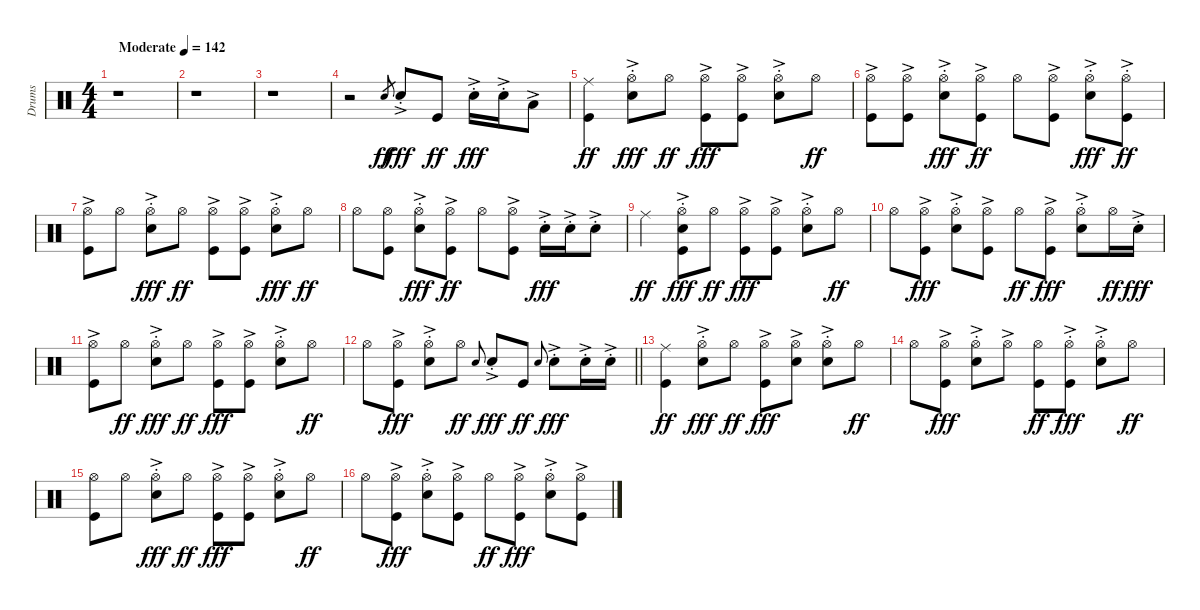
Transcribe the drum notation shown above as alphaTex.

\track ("Drums" "Drums") {instrument percussion}
\staff {score}
\articulation defaults
\ts (4 4)
\tempo (142 "Moderate")
\clef neutral
\ks c
r.1{dy ff} |
r.1 |
r.1 |
r.2 "Snare (hit) 2"{h}.8{gr} "Snare (hit) 2"{ac st}.8{dy fff} "Kick (hit)".8{dy ff} "Snare (hit) 2"{ac st}.16{dy fff} "Snare (hit) 2"{ac st}.16 "Low Floor Tom (hit)"{ac}.8 |
("Ride (middle)" "Kick (hit)").4{dy ff} ("Hi-Hat (open)"{ac st} "Snare (hit) 2"{ac st}).8{dy fff} "Hi-Hat (open)".8{dy ff} ("Hi-Hat (open)"{ac} "Kick (hit)"{ac}).8{dy fff} ("Hi-Hat (open)"{ac} "Kick (hit)"{ac}).8 ("Hi-Hat (open)"{ac st} "Snare (hit) 2"{ac st}).8 "Hi-Hat (open)".8{dy ff} |
("Hi-Hat (open)"{ac} "Kick (hit)").8 ("Hi-Hat (open)"{ac} "Kick (hit)").8 ("Hi-Hat (open)"{ac st} "Snare (hit) 2"{ac st}).8{dy fff} ("Hi-Hat (open)"{ac} "Kick (hit)").8{dy ff} "Hi-Hat (open)".8 ("Hi-Hat (open)"{ac} "Kick (hit)").8 ("Hi-Hat (open)"{ac st} "Snare (hit) 2"{ac st}).8{dy fff} ("Hi-Hat (open)"{ac st} "Kick (hit)").8{dy ff} |
("Hi-Hat (open)"{ac} "Kick (hit)").8 "Hi-Hat (open)".8 ("Hi-Hat (open)"{ac st} "Snare (hit) 2"{ac st}).8{dy fff} "Hi-Hat (open)".8{dy ff} ("Hi-Hat (open)"{ac} "Kick (hit)").8 ("Hi-Hat (open)"{ac} "Kick (hit)").8 ("Hi-Hat (open)"{ac st} "Snare (hit) 2"{ac st}).8{dy fff} "Hi-Hat (open)".8{dy ff} |
"Hi-Hat (open)".8 ("Hi-Hat (open)" "Kick (hit)").8 ("Hi-Hat (open)"{ac st} "Snare (hit) 2"{ac st}).8{dy fff} ("Hi-Hat (open)"{ac} "Kick (hit)").8{dy ff} "Hi-Hat (open)".8 ("Hi-Hat (open)"{ac} "Kick (hit)").8 "Snare (hit) 2"{ac st}.16{dy fff} "Snare (hit) 2"{ac st}.16 "Snare (hit) 2"{ac st}.8 |
"Ride (middle)".4{dy ff} ("Hi-Hat (open)"{ac st} "Snare (hit) 2"{ac st} "Kick (hit)"{ac st}).8{dy fff} "Hi-Hat (open)".8{dy ff} ("Hi-Hat (open)"{ac} "Kick (hit)"{ac}).8{dy fff} ("Hi-Hat (open)"{ac} "Kick (hit)"{ac}).8 ("Hi-Hat (open)"{ac st} "Snare (hit) 2"{ac st}).8 "Hi-Hat (open)".8{dy ff} |
"Hi-Hat (open)".8 ("Hi-Hat (open)"{ac} "Kick (hit)"{ac}).8{dy fff} ("Hi-Hat (open)"{ac st} "Snare (hit) 2"{ac st}).8 ("Hi-Hat (open)"{ac} "Kick (hit)"{ac}).8 "Hi-Hat (open)".8{dy ff} ("Hi-Hat (open)"{ac} "Kick (hit)"{ac}).8{dy fff} ("Hi-Hat (open)"{ac st} "Snare (hit) 2"{ac st}).8 "Hi-Hat (open)".16{dy ff} "Snare (hit) 2"{ac st}.16{dy fff} |
("Hi-Hat (open)"{ac} "Kick (hit)"{ac}).8 "Hi-Hat (open)".8{dy ff} ("Hi-Hat (open)"{ac st} "Snare (hit) 2"{ac st}).8{dy fff} "Hi-Hat (open)".8{dy ff} ("Hi-Hat (open)"{ac} "Kick (hit)"{ac}).8{dy fff} ("Hi-Hat (open)"{ac} "Kick (hit)"{ac}).8 ("Hi-Hat (open)"{ac st} "Snare (hit) 2"{ac st}).8 "Hi-Hat (open)".8{dy ff} |
\barLineRight lightlight "Hi-Hat (open)".8
("Hi-Hat (open)"{ac} "Kick (hit)"{ac}).8{dy fff} ("Hi-Hat (open)"{ac st} "Snare (hit) 2"{ac st}).8 "Hi-Hat (open)".8{dy ff} "Snare (hit) 2"{h}.8{gr onbeat} "Snare (hit) 2"{ac st}.8{dy fff} "Kick (hit)".8{dy ff} "Snare (hit) 2"{h}.8{gr onbeat} "Snare (hit) 2"{ac st}.8{dy fff} "Snare (hit) 2"{ac st}.16 "Snare (hit) 2"{ac st}.16 |
("Ride (middle)" "Kick (hit)").4{dy ff} ("Hi-Hat (open)"{ac st} "Snare (hit) 2"{ac st}).8{dy fff} "Hi-Hat (open)".8{dy ff} ("Hi-Hat (open)"{ac} "Kick (hit)"{ac}).8{dy fff} ("Hi-Hat (open)"{ac} "Snare (hit) 2"{ac}).8 ("Hi-Hat (open)"{ac st} "Snare (hit) 2"{ac st}).8 "Hi-Hat (open)".8{dy ff} |
"Hi-Hat (open)".8 ("Hi-Hat (open)"{ac} "Kick (hit)"{ac}).8{dy fff} ("Hi-Hat (open)"{ac st} "Snare (hit) 2"{ac st}).8 "Hi-Hat (open)"{ac}.8 ("Hi-Hat (open)" "Kick (hit)").8{dy ff} ("Hi-Hat (open)"{ac st} "Kick (hit)"{ac st}).8{dy fff} ("Hi-Hat (open)"{ac st} "Snare (hit) 2"{ac st}).8 "Hi-Hat (open)".8{dy ff} |
("Hi-Hat (open)" "Kick (hit)").8 "Hi-Hat (open)".8 ("Hi-Hat (open)"{ac st} "Snare (hit) 2"{ac st}).8{dy fff} "Hi-Hat (open)".8{dy ff} ("Hi-Hat (open)"{ac} "Kick (hit)"{ac}).8{dy fff} ("Hi-Hat (open)"{ac} "Kick (hit)"{ac}).8 ("Hi-Hat (open)"{ac st} "Snare (hit) 2"{ac st}).8 "Hi-Hat (open)".8{dy ff} |
"Hi-Hat (open)".8 ("Hi-Hat (open)"{ac} "Kick (hit)"{ac}).8{dy fff} ("Hi-Hat (open)"{ac st} "Snare (hit) 2"{ac st}).8 ("Hi-Hat (open)"{ac} "Kick (hit)"{ac}).8 "Hi-Hat (open)".8{dy ff} ("Hi-Hat (open)"{ac} "Kick (hit)"{ac}).8{dy fff} ("Hi-Hat (open)"{ac st} "Snare (hit) 2"{ac st}).8 ("Hi-Hat (open)"{ac} "Kick (hit)"{ac}).8
